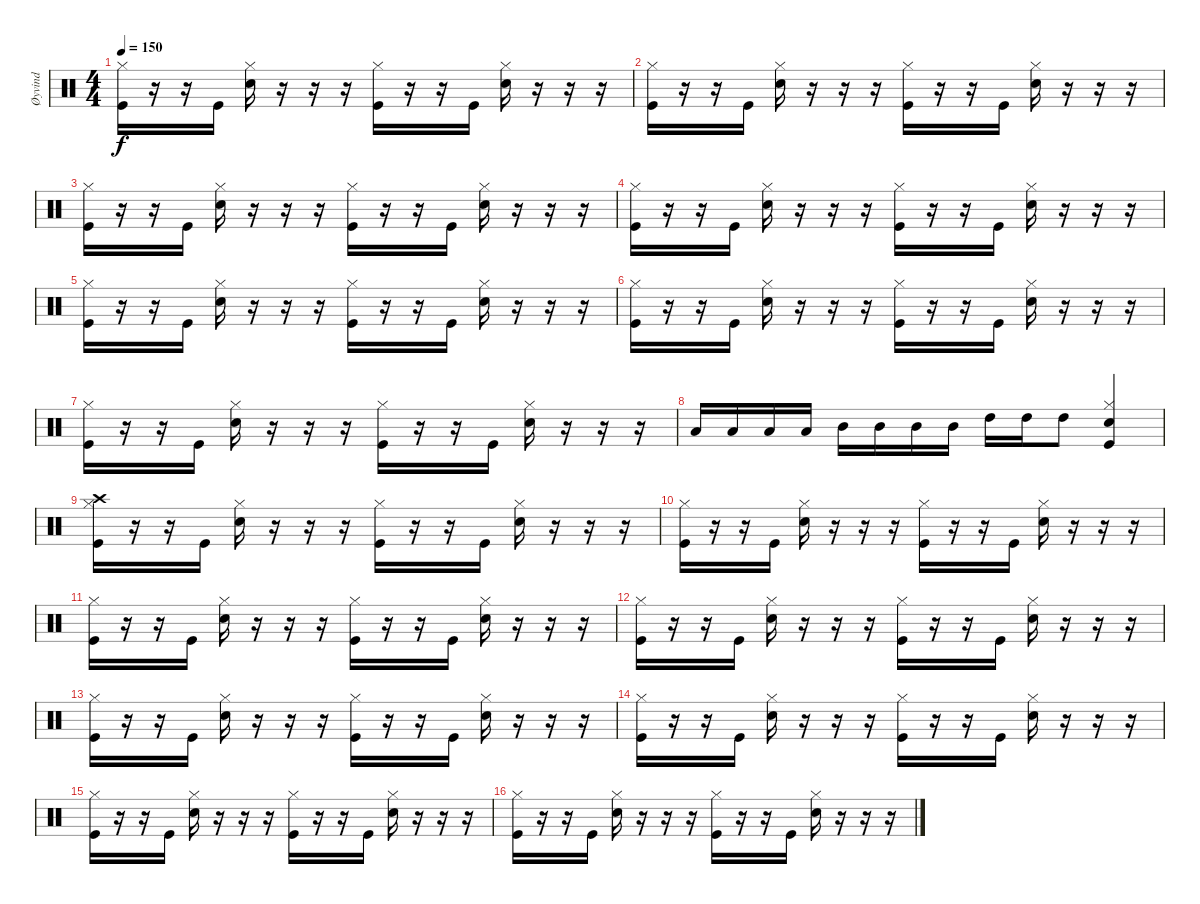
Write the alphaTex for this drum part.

\track ("Øyvind" "Øyvind") {instrument percussion}
\staff {score}
\articulation defaults
\ts (4 4)
\tempo 150
\clef neutral
\ks c
("Kick (hit)" "Hi-Hat (closed)").16{dy f} r.16 r.16 "Kick (hit)".16 ("Electric Snare (hit)" "Hi-Hat (closed)").16 r.16 r.16 r.16 ("Kick (hit)" "Hi-Hat (closed)").16 r.16 r.16 "Kick (hit)".16 ("Electric Snare (hit)" "Hi-Hat (closed)").16 r.16 r.16 r.16 |
("Kick (hit)" "Hi-Hat (closed)").16 r.16 r.16 "Kick (hit)".16 ("Electric Snare (hit)" "Hi-Hat (closed)").16 r.16 r.16 r.16 ("Kick (hit)" "Hi-Hat (closed)").16 r.16 r.16 "Kick (hit)".16 ("Electric Snare (hit)" "Hi-Hat (closed)").16 r.16 r.16 r.16 |
("Kick (hit)" "Hi-Hat (closed)").16 r.16 r.16 "Kick (hit)".16 ("Electric Snare (hit)" "Hi-Hat (closed)").16 r.16 r.16 r.16 ("Kick (hit)" "Hi-Hat (closed)").16 r.16 r.16 "Kick (hit)".16 ("Electric Snare (hit)" "Hi-Hat (closed)").16 r.16 r.16 r.16 |
("Kick (hit)" "Hi-Hat (closed)").16 r.16 r.16 "Kick (hit)".16 ("Electric Snare (hit)" "Hi-Hat (closed)").16 r.16 r.16 r.16 ("Kick (hit)" "Hi-Hat (closed)").16 r.16 r.16 "Kick (hit)".16 ("Electric Snare (hit)" "Hi-Hat (closed)").16 r.16 r.16 r.16 |
("Kick (hit)" "Hi-Hat (closed)").16 r.16 r.16 "Kick (hit)".16 ("Electric Snare (hit)" "Hi-Hat (closed)").16 r.16 r.16 r.16 ("Kick (hit)" "Hi-Hat (closed)").16 r.16 r.16 "Kick (hit)".16 ("Electric Snare (hit)" "Hi-Hat (closed)").16 r.16 r.16 r.16 |
("Kick (hit)" "Hi-Hat (closed)").16 r.16 r.16 "Kick (hit)".16 ("Electric Snare (hit)" "Hi-Hat (closed)").16 r.16 r.16 r.16 ("Kick (hit)" "Hi-Hat (closed)").16 r.16 r.16 "Kick (hit)".16 ("Electric Snare (hit)" "Hi-Hat (closed)").16 r.16 r.16 r.16 |
("Kick (hit)" "Hi-Hat (closed)").16 r.16 r.16 "Kick (hit)".16 ("Electric Snare (hit)" "Hi-Hat (closed)").16 r.16 r.16 r.16 ("Kick (hit)" "Hi-Hat (closed)").16 r.16 r.16 "Kick (hit)".16 ("Electric Snare (hit)" "Hi-Hat (closed)").16 r.16 r.16 r.16 |
"Low Tom (hit)".16 "Low Tom (hit)".16 "Low Tom (hit)".16 "Low Tom (hit)".16 "Mid Tom (hit)".16 "Mid Tom (hit)".16 "Mid Tom (hit)".16 "Mid Tom (hit)".16 "High Tom (hit)".16 "High Tom (hit)".16 "High Tom (hit)".8 ("Snare (hit) 2" "Kick (hit)" "Hi-Hat (closed)").4 |
("Crash high (hit)" "Kick (hit)" "Hi-Hat (closed)").16 r.16 r.16 "Kick (hit)".16 ("Electric Snare (hit)" "Hi-Hat (closed)").16 r.16 r.16 r.16 ("Kick (hit)" "Hi-Hat (closed)").16 r.16 r.16 "Kick (hit)".16 ("Electric Snare (hit)" "Hi-Hat (closed)").16 r.16 r.16 r.16 |
("Kick (hit)" "Hi-Hat (closed)").16 r.16 r.16 "Kick (hit)".16 ("Electric Snare (hit)" "Hi-Hat (closed)").16 r.16 r.16 r.16 ("Kick (hit)" "Hi-Hat (closed)").16 r.16 r.16 "Kick (hit)".16 ("Electric Snare (hit)" "Hi-Hat (closed)").16 r.16 r.16 r.16 |
("Kick (hit)" "Hi-Hat (closed)").16 r.16 r.16 "Kick (hit)".16 ("Electric Snare (hit)" "Hi-Hat (closed)").16 r.16 r.16 r.16 ("Kick (hit)" "Hi-Hat (closed)").16 r.16 r.16 "Kick (hit)".16 ("Electric Snare (hit)" "Hi-Hat (closed)").16 r.16 r.16 r.16 |
("Kick (hit)" "Hi-Hat (closed)").16 r.16 r.16 "Kick (hit)".16 ("Electric Snare (hit)" "Hi-Hat (closed)").16 r.16 r.16 r.16 ("Kick (hit)" "Hi-Hat (closed)").16 r.16 r.16 "Kick (hit)".16 ("Electric Snare (hit)" "Hi-Hat (closed)").16 r.16 r.16 r.16 |
("Kick (hit)" "Hi-Hat (closed)").16 r.16 r.16 "Kick (hit)".16 ("Electric Snare (hit)" "Hi-Hat (closed)").16 r.16 r.16 r.16 ("Kick (hit)" "Hi-Hat (closed)").16 r.16 r.16 "Kick (hit)".16 ("Electric Snare (hit)" "Hi-Hat (closed)").16 r.16 r.16 r.16 |
("Kick (hit)" "Hi-Hat (closed)").16 r.16 r.16 "Kick (hit)".16 ("Electric Snare (hit)" "Hi-Hat (closed)").16 r.16 r.16 r.16 ("Kick (hit)" "Hi-Hat (closed)").16 r.16 r.16 "Kick (hit)".16 ("Electric Snare (hit)" "Hi-Hat (closed)").16 r.16 r.16 r.16 |
("Kick (hit)" "Hi-Hat (closed)").16 r.16 r.16 "Kick (hit)".16 ("Electric Snare (hit)" "Hi-Hat (closed)").16 r.16 r.16 r.16 ("Kick (hit)" "Hi-Hat (closed)").16 r.16 r.16 "Kick (hit)".16 ("Electric Snare (hit)" "Hi-Hat (closed)").16 r.16 r.16 r.16 |
("Kick (hit)" "Hi-Hat (closed)").16 r.16 r.16 "Kick (hit)".16 ("Electric Snare (hit)" "Hi-Hat (closed)").16 r.16 r.16 r.16 ("Kick (hit)" "Hi-Hat (closed)").16 r.16 r.16 "Kick (hit)".16 ("Electric Snare (hit)" "Hi-Hat (closed)").16 r.16 r.16 r.16
